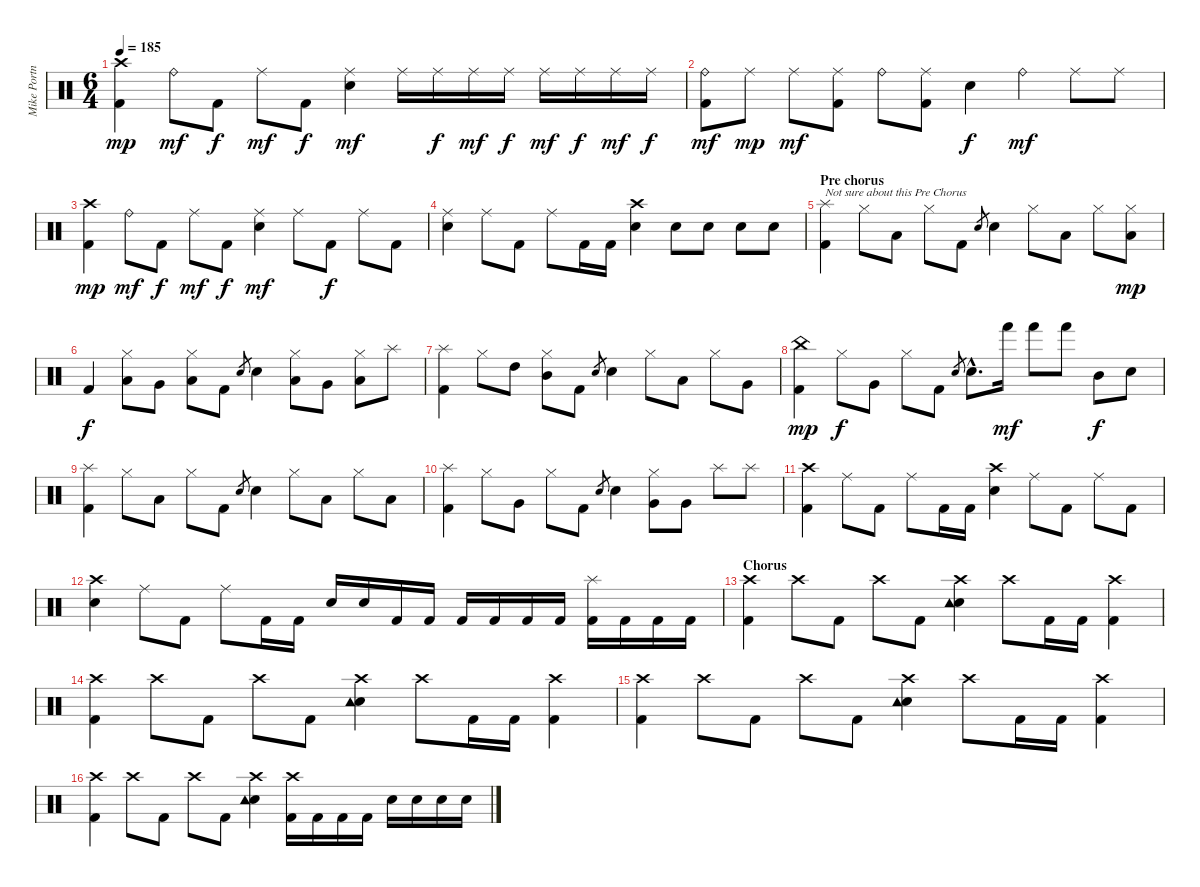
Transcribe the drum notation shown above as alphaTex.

\track ("Mike Portnoy" "Mike Portn") {instrument percussion}
\staff {score}
\articulation defaults
\ts (6 4)
\tempo 185
\clef neutral
\ks c
("Crash high (hit)" "Kick (hit) 2").4{dy mp} "Ride (bell)".8{dy mf} "Kick (hit) 2".8{dy f} "Ride (middle)".8{dy mf} "Kick (hit) 2".8{dy f} ("Snare (hit) 2" "Ride (middle)").4{dy mf} "Ride (middle)".16 "Ride (middle)".16{dy f} "Ride (middle)".16{dy mf} "Ride (middle)".16{dy f} "Ride (middle)".16{dy mf} "Ride (middle)".16{dy f} "Ride (middle)".16{dy mf} "Ride (middle)".16{dy f} |
("Ride (bell)" "Kick (hit) 2").8{dy mf} "Ride (middle)".8{dy mp} "Ride (middle)".8{dy mf} ("Ride (middle)" "Kick (hit) 2").8 "Ride (bell)".8 ("Ride (middle)" "Kick (hit) 2").8 "Snare (hit) 2".4{dy f} "Ride (bell)".4{dy mf} "Ride (middle)".8 "Ride (middle)".8 |
("Crash high (hit)" "Kick (hit) 2").4{dy mp} "Ride (bell)".8{dy mf} "Kick (hit) 2".8{dy f} "Ride (middle)".8{dy mf} "Kick (hit) 2".8{dy f} ("Snare (hit) 2" "Ride (middle)").4{dy mf} "Ride (middle)".8 "Kick (hit) 2".8{dy f} "Ride (middle)".8 "Kick (hit) 2".8 |
("Snare (hit) 2" "Ride (middle)").4 "Ride (middle)".8 "Kick (hit) 2".8 "Ride (middle)".8 "Kick (hit) 2".16 "Kick (hit) 2".16 ("Snare (hit) 2" "Crash high (hit)").4 "Snare (hit) 2".8 "Snare (hit) 2".8 "Snare (hit) 2".8 "Snare (hit) 2".8 |
\section ("" "Pre chorus")
("Splash (hit)" "Kick (hit) 2").4{txt "Not sure about this Pre Chorus"} "Hi-Hat (closed)".8 "Low Floor Tom (hit)".8 "Hi-Hat (closed)".8 "Kick (hit) 2".8 "Snare (hit) 2".8{gr} "Snare (hit) 2".4 "Hi-Hat (closed)".8 "Low Floor Tom (hit)".8 "Hi-Hat (closed)".8 ("Hi-Hat (closed)" "Low Floor Tom (hit)").8{dy mp} |
"Kick (hit) 2".4{dy f} ("Hi-Hat (closed)" "Low Tom (hit)").8 "Very Low Tom (hit)".8 ("Hi-Hat (closed)" "Low Floor Tom (hit)").8 "Kick (hit) 2".8 "Snare (hit) 2".8{gr} "Snare (hit) 2".4 ("Hi-Hat (closed)" "Low Tom (hit)").8 "Very Low Tom (hit)".8 ("Hi-Hat (closed)" "Low Floor Tom (hit)").8 "Splash (hit)".8 |
("Splash (hit)" "Kick (hit) 2").4 "Hi-Hat (closed)".8 "High Tom (hit)".8 ("Hi-Hat (closed)" "Mid Tom (hit)").8 "Kick (hit) 2".8 "Snare (hit) 2".8{gr} "Snare (hit) 2".4 "Hi-Hat (closed)".8 "Low Tom (hit)".8 "Hi-Hat (closed)".8 "Very Low Tom (hit)".8 |
("China (hit)" "Kick (hit) 2").4{dy mp} "Hi-Hat (closed)".8{dy f} "Very Low Tom (hit)".8 "Hi-Hat (closed)".8 "Kick (hit) 2".8 "Snare (hit) 2".8{gr} "Snare (hit) 2"{hac}.8{d} "Hand (hit)".16{dy mf} "Hand (hit)".8 "Hand (hit)".8 "Mid Tom (hit)".8{dy f} "Snare (hit) 2".8 |
("Splash (hit)" "Kick (hit) 2").4 "Hi-Hat (closed)".8 "Low Tom (hit)".8 "Hi-Hat (closed)".8 "Kick (hit) 2".8 "Snare (hit) 2".8{gr} "Snare (hit) 2".4 "Hi-Hat (closed)".8 "Low Tom (hit)".8 "Hi-Hat (closed)".8 "Low Tom (hit)".8 |
("Splash (hit)" "Kick (hit) 2").4 "Hi-Hat (closed)".8 "Very Low Tom (hit)".8 "Hi-Hat (closed)".8 "Kick (hit) 2".8 "Snare (hit) 2".8{gr} "Snare (hit) 2".4 ("Hi-Hat (closed)" "Very Low Tom (hit)").8 "Very Low Tom (hit)".8 "Splash (hit)".8 "Splash (hit)".8 |
("Crash high (hit)" "Kick (hit) 2").4 "Ride (middle)".8 "Kick (hit) 2".8 "Ride (middle)".8 "Kick (hit) 2".16 "Kick (hit) 2".16 ("Snare (hit) 2" "Crash high (hit)").4 "Ride (middle)".8 "Kick (hit) 2".8 "Ride (middle)".8 "Kick (hit) 2".8 |
("Snare (hit) 2" "Crash high (hit)").4 "Ride (middle)".8 "Kick (hit) 2".8 "Ride (middle)".8 "Kick (hit) 2".16 "Kick (hit) 2".16 "Snare (hit) 2".16 "Snare (hit) 2".16 "Kick (hit) 2".16 "Kick (hit) 2".16 "Kick (hit) 2".16 "Kick (hit) 2".16 "Kick (hit) 2".16 "Kick (hit) 2".16 ("Splash (hit)" "Kick (hit) 2").16 "Kick (hit) 2".16 "Kick (hit) 2".16 "Kick (hit) 2".16 |
\section ("" "Chorus")
("Crash high (hit)" "Kick (hit) 2").4 "Crash high (hit)".8 "Kick (hit) 2".8 "Crash high (hit)".8 "Kick (hit) 2".8 ("Snare (hit) 2" "Crash high (hit)" "Tambourine (hit)").4 "Crash high (hit)".8 "Kick (hit) 2".16 "Kick (hit) 2".16 ("Crash high (hit)" "Kick (hit) 2").4 |
("Crash high (hit)" "Kick (hit) 2").4 "Crash high (hit)".8 "Kick (hit) 2".8 "Crash high (hit)".8 "Kick (hit) 2".8 ("Snare (hit) 2" "Crash high (hit)" "Tambourine (hit)").4 "Crash high (hit)".8 "Kick (hit) 2".16 "Kick (hit) 2".16 ("Crash high (hit)" "Kick (hit) 2").4 |
("Crash high (hit)" "Kick (hit) 2").4 "Crash high (hit)".8 "Kick (hit) 2".8 "Crash high (hit)".8 "Kick (hit) 2".8 ("Snare (hit) 2" "Crash high (hit)" "Tambourine (hit)").4 "Crash high (hit)".8 "Kick (hit) 2".16 "Kick (hit) 2".16 ("Crash high (hit)" "Kick (hit) 2").4 |
("Crash high (hit)" "Kick (hit) 2").4 "Crash high (hit)".8 "Kick (hit) 2".8 "Crash high (hit)".8 "Kick (hit) 2".8 ("Snare (hit) 2" "Crash high (hit)" "Tambourine (hit)").4 ("Crash high (hit)" "Kick (hit) 2").16 "Kick (hit) 2".16 "Kick (hit) 2".16 "Kick (hit) 2".16 "Snare (hit) 2".16 "Snare (hit) 2".16 "Snare (hit) 2".16 "Snare (hit) 2".16
